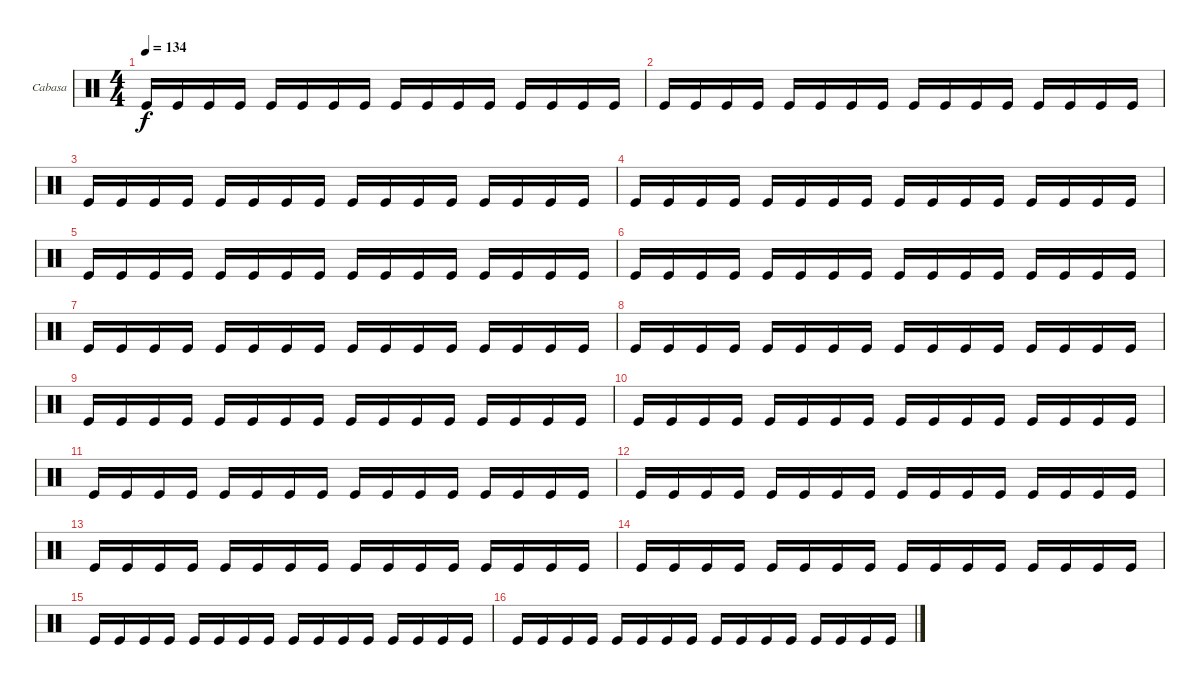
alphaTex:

\bracketExtendMode groupsimilarinstruments
\firstSystemTrackNameOrientation horizontal
\otherSystemsTrackNameOrientation horizontal
\track ("Cabasa" "Cabasa") {instrument percussion}
\staff {score}
\articulation defaults
\ts (4 4)
\tempo 134
\clef neutral
\ks c "Kick (hit)".16{dy f} "Kick (hit)".16 "Kick (hit)".16 "Kick (hit)".16 "Kick (hit)".16 "Kick (hit)".16 "Kick (hit)".16 "Kick (hit)".16 "Kick (hit)".16 "Kick (hit)".16 "Kick (hit)".16 "Kick (hit)".16 "Kick (hit)".16 "Kick (hit)".16 "Kick (hit)".16 "Kick (hit)".16
|
"Kick (hit)".16 "Kick (hit)".16 "Kick (hit)".16 "Kick (hit)".16 "Kick (hit)".16 "Kick (hit)".16 "Kick (hit)".16 "Kick (hit)".16 "Kick (hit)".16 "Kick (hit)".16 "Kick (hit)".16 "Kick (hit)".16 "Kick (hit)".16 "Kick (hit)".16 "Kick (hit)".16 "Kick (hit)".16 |
"Kick (hit)".16 "Kick (hit)".16 "Kick (hit)".16 "Kick (hit)".16 "Kick (hit)".16 "Kick (hit)".16 "Kick (hit)".16 "Kick (hit)".16 "Kick (hit)".16 "Kick (hit)".16 "Kick (hit)".16 "Kick (hit)".16 "Kick (hit)".16 "Kick (hit)".16 "Kick (hit)".16 "Kick (hit)".16 |
"Kick (hit)".16 "Kick (hit)".16 "Kick (hit)".16 "Kick (hit)".16 "Kick (hit)".16 "Kick (hit)".16 "Kick (hit)".16 "Kick (hit)".16 "Kick (hit)".16 "Kick (hit)".16 "Kick (hit)".16 "Kick (hit)".16 "Kick (hit)".16 "Kick (hit)".16 "Kick (hit)".16 "Kick (hit)".16 |
"Kick (hit)".16 "Kick (hit)".16 "Kick (hit)".16 "Kick (hit)".16 "Kick (hit)".16 "Kick (hit)".16 "Kick (hit)".16 "Kick (hit)".16 "Kick (hit)".16 "Kick (hit)".16 "Kick (hit)".16 "Kick (hit)".16 "Kick (hit)".16 "Kick (hit)".16 "Kick (hit)".16 "Kick (hit)".16 |
"Kick (hit)".16 "Kick (hit)".16 "Kick (hit)".16 "Kick (hit)".16 "Kick (hit)".16 "Kick (hit)".16 "Kick (hit)".16 "Kick (hit)".16 "Kick (hit)".16 "Kick (hit)".16 "Kick (hit)".16 "Kick (hit)".16 "Kick (hit)".16 "Kick (hit)".16 "Kick (hit)".16 "Kick (hit)".16 |
"Kick (hit)".16 "Kick (hit)".16 "Kick (hit)".16 "Kick (hit)".16 "Kick (hit)".16 "Kick (hit)".16 "Kick (hit)".16 "Kick (hit)".16 "Kick (hit)".16 "Kick (hit)".16 "Kick (hit)".16 "Kick (hit)".16 "Kick (hit)".16 "Kick (hit)".16 "Kick (hit)".16 "Kick (hit)".16 |
"Kick (hit)".16 "Kick (hit)".16 "Kick (hit)".16 "Kick (hit)".16 "Kick (hit)".16 "Kick (hit)".16 "Kick (hit)".16 "Kick (hit)".16 "Kick (hit)".16 "Kick (hit)".16 "Kick (hit)".16 "Kick (hit)".16 "Kick (hit)".16 "Kick (hit)".16 "Kick (hit)".16 "Kick (hit)".16 |
"Kick (hit)".16 "Kick (hit)".16 "Kick (hit)".16 "Kick (hit)".16 "Kick (hit)".16 "Kick (hit)".16 "Kick (hit)".16 "Kick (hit)".16 "Kick (hit)".16 "Kick (hit)".16 "Kick (hit)".16 "Kick (hit)".16 "Kick (hit)".16 "Kick (hit)".16 "Kick (hit)".16 "Kick (hit)".16 |
"Kick (hit)".16 "Kick (hit)".16 "Kick (hit)".16 "Kick (hit)".16 "Kick (hit)".16 "Kick (hit)".16 "Kick (hit)".16 "Kick (hit)".16 "Kick (hit)".16 "Kick (hit)".16 "Kick (hit)".16 "Kick (hit)".16 "Kick (hit)".16 "Kick (hit)".16 "Kick (hit)".16 "Kick (hit)".16 |
"Kick (hit)".16 "Kick (hit)".16 "Kick (hit)".16 "Kick (hit)".16 "Kick (hit)".16 "Kick (hit)".16 "Kick (hit)".16 "Kick (hit)".16 "Kick (hit)".16 "Kick (hit)".16 "Kick (hit)".16 "Kick (hit)".16 "Kick (hit)".16 "Kick (hit)".16 "Kick (hit)".16 "Kick (hit)".16 |
"Kick (hit)".16 "Kick (hit)".16 "Kick (hit)".16 "Kick (hit)".16 "Kick (hit)".16 "Kick (hit)".16 "Kick (hit)".16 "Kick (hit)".16 "Kick (hit)".16 "Kick (hit)".16 "Kick (hit)".16 "Kick (hit)".16 "Kick (hit)".16 "Kick (hit)".16 "Kick (hit)".16 "Kick (hit)".16 |
"Kick (hit)".16 "Kick (hit)".16 "Kick (hit)".16 "Kick (hit)".16 "Kick (hit)".16 "Kick (hit)".16 "Kick (hit)".16 "Kick (hit)".16 "Kick (hit)".16 "Kick (hit)".16 "Kick (hit)".16 "Kick (hit)".16 "Kick (hit)".16 "Kick (hit)".16 "Kick (hit)".16 "Kick (hit)".16 |
"Kick (hit)".16 "Kick (hit)".16 "Kick (hit)".16 "Kick (hit)".16 "Kick (hit)".16 "Kick (hit)".16 "Kick (hit)".16 "Kick (hit)".16 "Kick (hit)".16 "Kick (hit)".16 "Kick (hit)".16 "Kick (hit)".16 "Kick (hit)".16 "Kick (hit)".16 "Kick (hit)".16 "Kick (hit)".16 |
"Kick (hit)".16 "Kick (hit)".16 "Kick (hit)".16 "Kick (hit)".16 "Kick (hit)".16 "Kick (hit)".16 "Kick (hit)".16 "Kick (hit)".16 "Kick (hit)".16 "Kick (hit)".16 "Kick (hit)".16 "Kick (hit)".16 "Kick (hit)".16 "Kick (hit)".16 "Kick (hit)".16 "Kick (hit)".16 |
"Kick (hit)".16 "Kick (hit)".16 "Kick (hit)".16 "Kick (hit)".16 "Kick (hit)".16 "Kick (hit)".16 "Kick (hit)".16 "Kick (hit)".16 "Kick (hit)".16 "Kick (hit)".16 "Kick (hit)".16 "Kick (hit)".16 "Kick (hit)".16 "Kick (hit)".16 "Kick (hit)".16 "Kick (hit)".16
